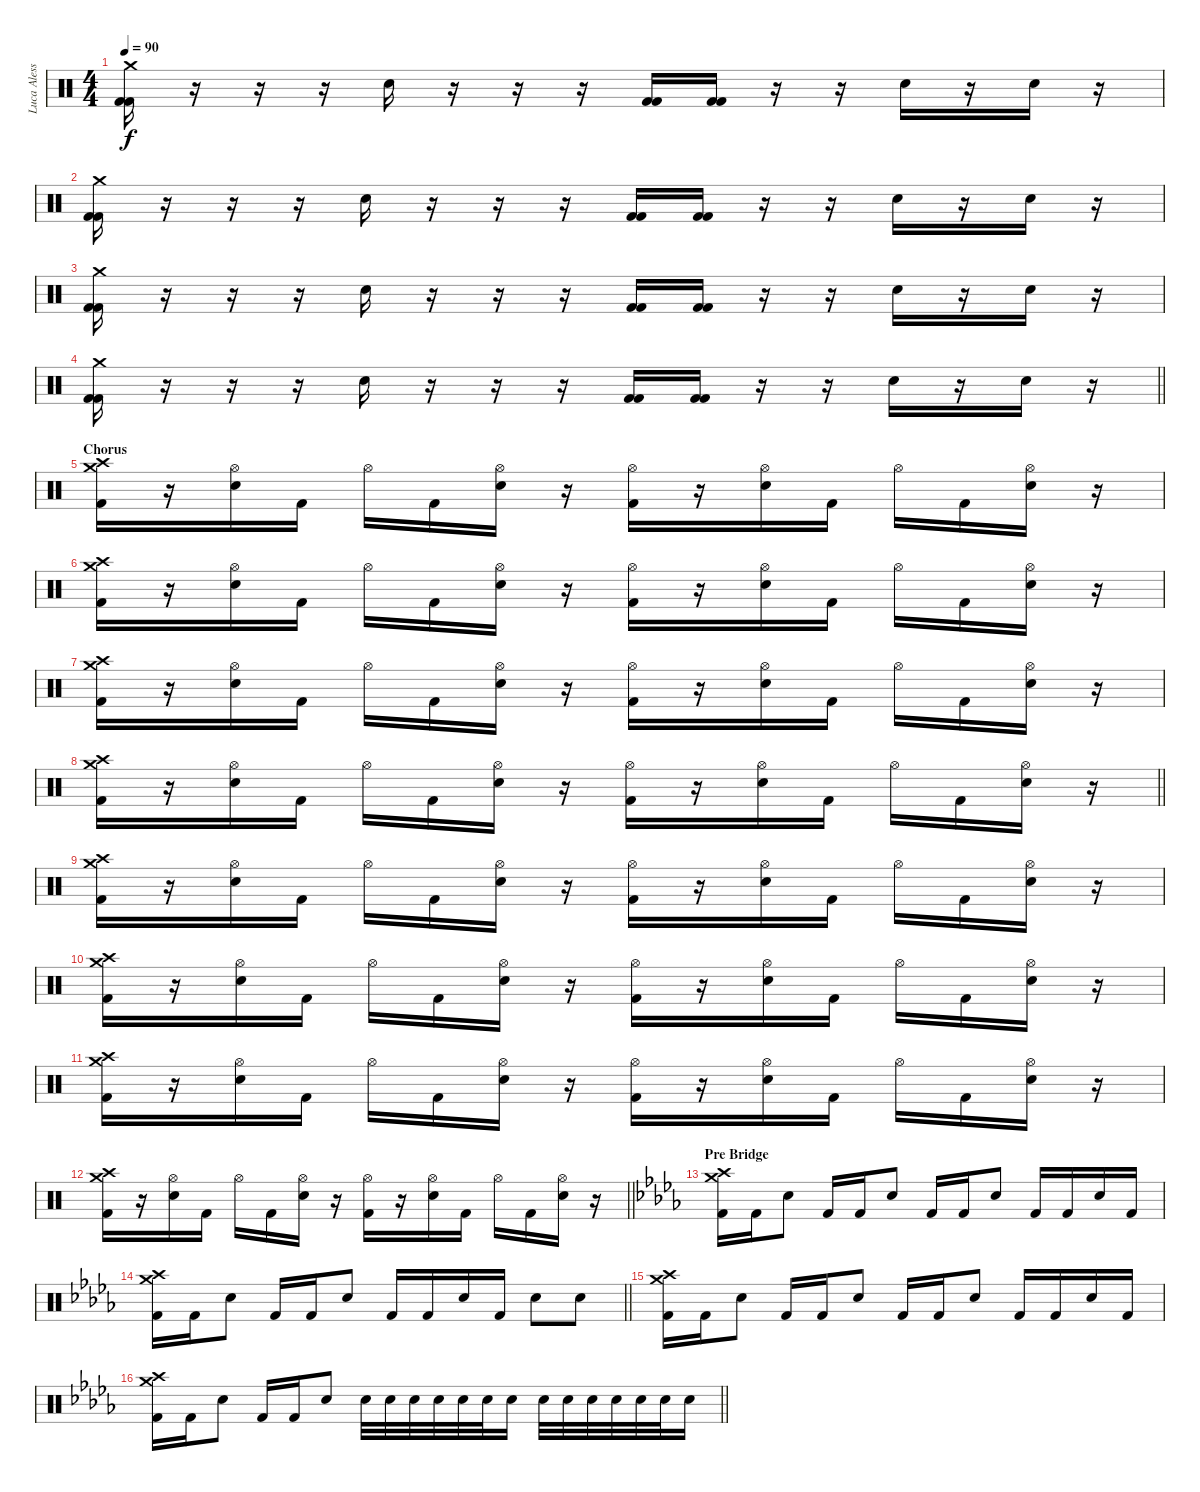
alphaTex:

\track ("Luca Alessandrelli (Drums)" "Luca Aless") {instrument percussion}
\staff {score}
\articulation defaults
\ts (4 4)
\tempo 90
\clef neutral
\ks c
("Crash medium (hit)" "Kick (hit) 2" "Kick (hit) 2").16{dy f} r.16 r.16 r.16 "Electric Snare (hit)".16 r.16 r.16 r.16 ("Kick (hit) 2" "Kick (hit) 2").16 ("Kick (hit) 2" "Kick (hit) 2").16 r.16 r.16 "Electric Snare (hit)".16 r.16 "Electric Snare (hit)".16 r.16 |
("Crash medium (hit)" "Kick (hit) 2" "Kick (hit) 2").16 r.16 r.16 r.16 "Electric Snare (hit)".16 r.16 r.16 r.16 ("Kick (hit) 2" "Kick (hit) 2").16 ("Kick (hit) 2" "Kick (hit) 2").16 r.16 r.16 "Electric Snare (hit)".16 r.16 "Electric Snare (hit)".16 r.16 |
("Crash medium (hit)" "Kick (hit) 2" "Kick (hit) 2").16 r.16 r.16 r.16 "Electric Snare (hit)".16 r.16 r.16 r.16 ("Kick (hit) 2" "Kick (hit) 2").16 ("Kick (hit) 2" "Kick (hit) 2").16 r.16 r.16 "Electric Snare (hit)".16 r.16 "Electric Snare (hit)".16 r.16 |
\barLineRight lightlight
("Crash medium (hit)" "Kick (hit) 2" "Kick (hit) 2").16 r.16 r.16 r.16 "Electric Snare (hit)".16 r.16 r.16 r.16 ("Kick (hit) 2" "Kick (hit) 2").16 ("Kick (hit) 2" "Kick (hit) 2").16 r.16 r.16 "Electric Snare (hit)".16 r.16 "Electric Snare (hit)".16 r.16 |
\section ("" "Chorus")
("Crash high (hit)" "Crash medium (hit)" "Kick (hit) 2").16 r.16 ("Hi-Hat (open)" "Electric Snare (hit)").16 "Kick (hit) 2".16 "Hi-Hat (open)".16 "Kick (hit) 2".16 ("Hi-Hat (open)" "Electric Snare (hit)").16 r.16 ("Hi-Hat (open)" "Kick (hit) 2").16 r.16 ("Hi-Hat (open)" "Electric Snare (hit)").16 "Kick (hit) 2".16 "Hi-Hat (open)".16 "Kick (hit) 2".16 ("Hi-Hat (open)" "Electric Snare (hit)").16 r.16 |
("Crash high (hit)" "Crash medium (hit)" "Kick (hit) 2").16 r.16 ("Hi-Hat (open)" "Electric Snare (hit)").16 "Kick (hit) 2".16 "Hi-Hat (open)".16 "Kick (hit) 2".16 ("Hi-Hat (open)" "Electric Snare (hit)").16 r.16 ("Hi-Hat (open)" "Kick (hit) 2").16 r.16 ("Hi-Hat (open)" "Electric Snare (hit)").16 "Kick (hit) 2".16 "Hi-Hat (open)".16 "Kick (hit) 2".16 ("Hi-Hat (open)" "Electric Snare (hit)").16 r.16 |
("Crash high (hit)" "Crash medium (hit)" "Kick (hit) 2").16 r.16 ("Hi-Hat (open)" "Electric Snare (hit)").16 "Kick (hit) 2".16 "Hi-Hat (open)".16 "Kick (hit) 2".16 ("Hi-Hat (open)" "Electric Snare (hit)").16 r.16 ("Hi-Hat (open)" "Kick (hit) 2").16 r.16 ("Hi-Hat (open)" "Electric Snare (hit)").16 "Kick (hit) 2".16 "Hi-Hat (open)".16 "Kick (hit) 2".16 ("Hi-Hat (open)" "Electric Snare (hit)").16 r.16 |
\barLineRight lightlight
("Crash high (hit)" "Crash medium (hit)" "Kick (hit) 2").16 r.16 ("Hi-Hat (open)" "Electric Snare (hit)").16 "Kick (hit) 2".16 "Hi-Hat (open)".16 "Kick (hit) 2".16 ("Hi-Hat (open)" "Electric Snare (hit)").16 r.16 ("Hi-Hat (open)" "Kick (hit) 2").16 r.16 ("Hi-Hat (open)" "Electric Snare (hit)").16 "Kick (hit) 2".16 "Hi-Hat (open)".16 "Kick (hit) 2".16 ("Hi-Hat (open)" "Electric Snare (hit)").16 r.16 |
("Crash high (hit)" "Crash medium (hit)" "Kick (hit) 2").16 r.16 ("Hi-Hat (open)" "Electric Snare (hit)").16 "Kick (hit) 2".16 "Hi-Hat (open)".16 "Kick (hit) 2".16 ("Hi-Hat (open)" "Electric Snare (hit)").16 r.16 ("Hi-Hat (open)" "Kick (hit) 2").16 r.16 ("Hi-Hat (open)" "Electric Snare (hit)").16 "Kick (hit) 2".16 "Hi-Hat (open)".16 "Kick (hit) 2".16 ("Hi-Hat (open)" "Electric Snare (hit)").16 r.16 |
("Crash high (hit)" "Crash medium (hit)" "Kick (hit) 2").16 r.16 ("Hi-Hat (open)" "Electric Snare (hit)").16 "Kick (hit) 2".16 "Hi-Hat (open)".16 "Kick (hit) 2".16 ("Hi-Hat (open)" "Electric Snare (hit)").16 r.16 ("Hi-Hat (open)" "Kick (hit) 2").16 r.16 ("Hi-Hat (open)" "Electric Snare (hit)").16 "Kick (hit) 2".16 "Hi-Hat (open)".16 "Kick (hit) 2".16 ("Hi-Hat (open)" "Electric Snare (hit)").16 r.16 |
("Crash high (hit)" "Crash medium (hit)" "Kick (hit) 2").16 r.16 ("Hi-Hat (open)" "Electric Snare (hit)").16 "Kick (hit) 2".16 "Hi-Hat (open)".16 "Kick (hit) 2".16 ("Hi-Hat (open)" "Electric Snare (hit)").16 r.16 ("Hi-Hat (open)" "Kick (hit) 2").16 r.16 ("Hi-Hat (open)" "Electric Snare (hit)").16 "Kick (hit) 2".16 "Hi-Hat (open)".16 "Kick (hit) 2".16 ("Hi-Hat (open)" "Electric Snare (hit)").16 r.16 |
\barLineRight lightlight
("Crash high (hit)" "Crash medium (hit)" "Kick (hit) 2").16 r.16 ("Hi-Hat (open)" "Electric Snare (hit)").16 "Kick (hit) 2".16 "Hi-Hat (open)".16 "Kick (hit) 2".16 ("Hi-Hat (open)" "Electric Snare (hit)").16 r.16 ("Hi-Hat (open)" "Kick (hit) 2").16 r.16 ("Hi-Hat (open)" "Electric Snare (hit)").16 "Kick (hit) 2".16 "Hi-Hat (open)".16 "Kick (hit) 2".16 ("Hi-Hat (open)" "Electric Snare (hit)").16 r.16 |
\section ("" "Pre Bridge")
\ks db
("Crash high (hit)" "Crash medium (hit)" "Kick (hit) 2").16 "Kick (hit) 2".16 "Snare (hit) 2".8 "Kick (hit) 2".16 "Kick (hit) 2".16 "Snare (hit) 2".8 "Kick (hit) 2".16 "Kick (hit) 2".16 "Snare (hit) 2".8 "Kick (hit) 2".16 "Kick (hit) 2".16 "Snare (hit) 2".16 "Kick (hit) 2".16 |
\barLineRight lightlight
("Crash high (hit)" "Crash medium (hit)" "Kick (hit) 2").16 "Kick (hit) 2".16 "Snare (hit) 2".8 "Kick (hit) 2".16 "Kick (hit) 2".16 "Snare (hit) 2".8 "Kick (hit) 2".16 "Kick (hit) 2".16 "Snare (hit) 2".16 "Kick (hit) 2".16 "Snare (hit) 2".8 "Snare (hit) 2".8 |
("Crash high (hit)" "Crash medium (hit)" "Kick (hit) 2").16 "Kick (hit) 2".16 "Snare (hit) 2".8 "Kick (hit) 2".16 "Kick (hit) 2".16 "Snare (hit) 2".8 "Kick (hit) 2".16 "Kick (hit) 2".16 "Snare (hit) 2".8 "Kick (hit) 2".16 "Kick (hit) 2".16 "Snare (hit) 2".16 "Kick (hit) 2".16 |
\barLineRight lightlight
("Crash high (hit)" "Crash medium (hit)" "Kick (hit) 2").16 "Kick (hit) 2".16 "Snare (hit) 2".8 "Kick (hit) 2".16 "Kick (hit) 2".16 "Snare (hit) 2".8 "Snare (hit) 2".32 "Snare (hit) 2".32 "Snare (hit) 2".32 "Snare (hit) 2".32 "Snare (hit) 2".32 "Snare (hit) 2".32 "Snare (hit) 2".16 "Snare (hit) 2".32 "Snare (hit) 2".32 "Snare (hit) 2".32 "Snare (hit) 2".32 "Snare (hit) 2".32 "Snare (hit) 2".32 "Snare (hit) 2".16
